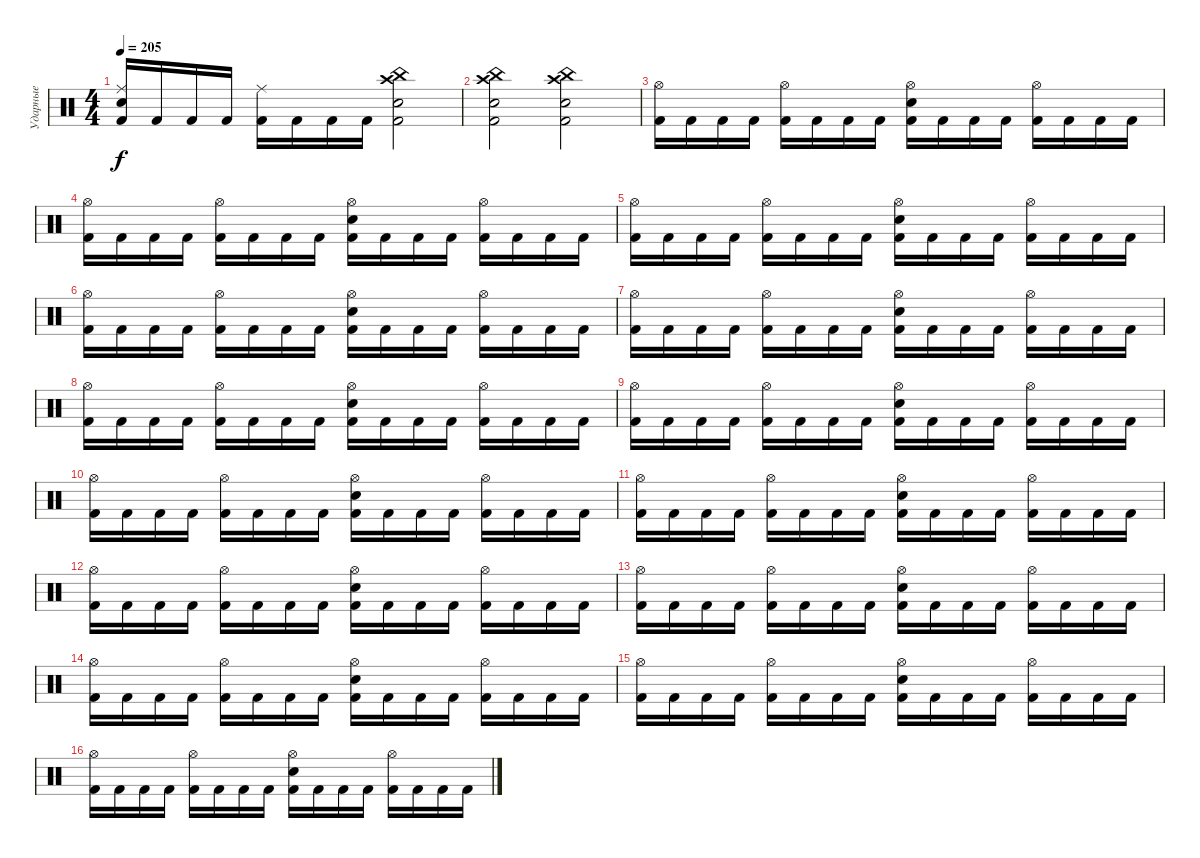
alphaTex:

\track ("Ударные" "Ударные") {instrument percussion}
\staff {score}
\articulation defaults
\ts (4 4)
\tempo 205
\clef neutral
\ks c
("Electric Snare (hit)" "Ride (middle)" "Kick (hit) 2").16{dy f} "Kick (hit) 2".16 "Kick (hit) 2".16 "Kick (hit) 2".16 ("Kick (hit) 2" "Ride (middle)").16 "Kick (hit) 2".16 "Kick (hit) 2".16 "Kick (hit) 2".16 ("Kick (hit) 2" "Electric Snare (hit)" "Crash high (hit)" "China (hit)").2 |
("China (hit)" "Crash high (hit)" "Kick (hit) 2" "Electric Snare (hit)").2 ("Electric Snare (hit)" "Kick (hit) 2" "Crash high (hit)" "China (hit)").2 |
("Hi-Hat (open)" "Kick (hit) 2").16 "Kick (hit) 2".16 "Kick (hit) 2".16 "Kick (hit) 2".16 ("Hi-Hat (open)" "Kick (hit) 2").16 "Kick (hit) 2".16 "Kick (hit) 2".16 "Kick (hit) 2".16 ("Hi-Hat (open)" "Electric Snare (hit)" "Kick (hit) 2").16 "Kick (hit) 2".16 "Kick (hit) 2".16 "Kick (hit) 2".16 ("Hi-Hat (open)" "Kick (hit) 2").16 "Kick (hit) 2".16 "Kick (hit) 2".16 "Kick (hit) 2".16 |
("Hi-Hat (open)" "Kick (hit) 2").16 "Kick (hit) 2".16 "Kick (hit) 2".16 "Kick (hit) 2".16 ("Hi-Hat (open)" "Kick (hit) 2").16 "Kick (hit) 2".16 "Kick (hit) 2".16 "Kick (hit) 2".16 ("Hi-Hat (open)" "Electric Snare (hit)" "Kick (hit) 2").16 "Kick (hit) 2".16 "Kick (hit) 2".16 "Kick (hit) 2".16 ("Hi-Hat (open)" "Kick (hit) 2").16 "Kick (hit) 2".16 "Kick (hit) 2".16 "Kick (hit) 2".16 |
("Hi-Hat (open)" "Kick (hit) 2").16 "Kick (hit) 2".16 "Kick (hit) 2".16 "Kick (hit) 2".16 ("Hi-Hat (open)" "Kick (hit) 2").16 "Kick (hit) 2".16 "Kick (hit) 2".16 "Kick (hit) 2".16 ("Hi-Hat (open)" "Electric Snare (hit)" "Kick (hit) 2").16 "Kick (hit) 2".16 "Kick (hit) 2".16 "Kick (hit) 2".16 ("Hi-Hat (open)" "Kick (hit) 2").16 "Kick (hit) 2".16 "Kick (hit) 2".16 "Kick (hit) 2".16 |
("Hi-Hat (open)" "Kick (hit) 2").16 "Kick (hit) 2".16 "Kick (hit) 2".16 "Kick (hit) 2".16 ("Hi-Hat (open)" "Kick (hit) 2").16 "Kick (hit) 2".16 "Kick (hit) 2".16 "Kick (hit) 2".16 ("Hi-Hat (open)" "Electric Snare (hit)" "Kick (hit) 2").16 "Kick (hit) 2".16 "Kick (hit) 2".16 "Kick (hit) 2".16 ("Hi-Hat (open)" "Kick (hit) 2").16 "Kick (hit) 2".16 "Kick (hit) 2".16 "Kick (hit) 2".16 |
("Hi-Hat (open)" "Kick (hit) 2").16 "Kick (hit) 2".16 "Kick (hit) 2".16 "Kick (hit) 2".16 ("Hi-Hat (open)" "Kick (hit) 2").16 "Kick (hit) 2".16 "Kick (hit) 2".16 "Kick (hit) 2".16 ("Hi-Hat (open)" "Electric Snare (hit)" "Kick (hit) 2").16 "Kick (hit) 2".16 "Kick (hit) 2".16 "Kick (hit) 2".16 ("Hi-Hat (open)" "Kick (hit) 2").16 "Kick (hit) 2".16 "Kick (hit) 2".16 "Kick (hit) 2".16 |
("Hi-Hat (open)" "Kick (hit) 2").16 "Kick (hit) 2".16 "Kick (hit) 2".16 "Kick (hit) 2".16 ("Hi-Hat (open)" "Kick (hit) 2").16 "Kick (hit) 2".16 "Kick (hit) 2".16 "Kick (hit) 2".16 ("Hi-Hat (open)" "Electric Snare (hit)" "Kick (hit) 2").16 "Kick (hit) 2".16 "Kick (hit) 2".16 "Kick (hit) 2".16 ("Hi-Hat (open)" "Kick (hit) 2").16 "Kick (hit) 2".16 "Kick (hit) 2".16 "Kick (hit) 2".16 |
("Hi-Hat (open)" "Kick (hit) 2").16 "Kick (hit) 2".16 "Kick (hit) 2".16 "Kick (hit) 2".16 ("Hi-Hat (open)" "Kick (hit) 2").16 "Kick (hit) 2".16 "Kick (hit) 2".16 "Kick (hit) 2".16 ("Hi-Hat (open)" "Electric Snare (hit)" "Kick (hit) 2").16 "Kick (hit) 2".16 "Kick (hit) 2".16 "Kick (hit) 2".16 ("Hi-Hat (open)" "Kick (hit) 2").16 "Kick (hit) 2".16 "Kick (hit) 2".16 "Kick (hit) 2".16 |
("Hi-Hat (open)" "Kick (hit) 2").16 "Kick (hit) 2".16 "Kick (hit) 2".16 "Kick (hit) 2".16 ("Hi-Hat (open)" "Kick (hit) 2").16 "Kick (hit) 2".16 "Kick (hit) 2".16 "Kick (hit) 2".16 ("Hi-Hat (open)" "Electric Snare (hit)" "Kick (hit) 2").16 "Kick (hit) 2".16 "Kick (hit) 2".16 "Kick (hit) 2".16 ("Hi-Hat (open)" "Kick (hit) 2").16 "Kick (hit) 2".16 "Kick (hit) 2".16 "Kick (hit) 2".16 |
("Hi-Hat (open)" "Kick (hit) 2").16 "Kick (hit) 2".16 "Kick (hit) 2".16 "Kick (hit) 2".16 ("Hi-Hat (open)" "Kick (hit) 2").16 "Kick (hit) 2".16 "Kick (hit) 2".16 "Kick (hit) 2".16 ("Hi-Hat (open)" "Electric Snare (hit)" "Kick (hit) 2").16 "Kick (hit) 2".16 "Kick (hit) 2".16 "Kick (hit) 2".16 ("Hi-Hat (open)" "Kick (hit) 2").16 "Kick (hit) 2".16 "Kick (hit) 2".16 "Kick (hit) 2".16 |
("Hi-Hat (open)" "Kick (hit) 2").16 "Kick (hit) 2".16 "Kick (hit) 2".16 "Kick (hit) 2".16 ("Hi-Hat (open)" "Kick (hit) 2").16 "Kick (hit) 2".16 "Kick (hit) 2".16 "Kick (hit) 2".16 ("Hi-Hat (open)" "Electric Snare (hit)" "Kick (hit) 2").16 "Kick (hit) 2".16 "Kick (hit) 2".16 "Kick (hit) 2".16 ("Hi-Hat (open)" "Kick (hit) 2").16 "Kick (hit) 2".16 "Kick (hit) 2".16 "Kick (hit) 2".16 |
("Hi-Hat (open)" "Kick (hit) 2").16 "Kick (hit) 2".16 "Kick (hit) 2".16 "Kick (hit) 2".16 ("Hi-Hat (open)" "Kick (hit) 2").16 "Kick (hit) 2".16 "Kick (hit) 2".16 "Kick (hit) 2".16 ("Hi-Hat (open)" "Electric Snare (hit)" "Kick (hit) 2").16 "Kick (hit) 2".16 "Kick (hit) 2".16 "Kick (hit) 2".16 ("Hi-Hat (open)" "Kick (hit) 2").16 "Kick (hit) 2".16 "Kick (hit) 2".16 "Kick (hit) 2".16 |
("Hi-Hat (open)" "Kick (hit) 2").16 "Kick (hit) 2".16 "Kick (hit) 2".16 "Kick (hit) 2".16 ("Hi-Hat (open)" "Kick (hit) 2").16 "Kick (hit) 2".16 "Kick (hit) 2".16 "Kick (hit) 2".16 ("Hi-Hat (open)" "Electric Snare (hit)" "Kick (hit) 2").16 "Kick (hit) 2".16 "Kick (hit) 2".16 "Kick (hit) 2".16 ("Hi-Hat (open)" "Kick (hit) 2").16 "Kick (hit) 2".16 "Kick (hit) 2".16 "Kick (hit) 2".16 |
("Hi-Hat (open)" "Kick (hit) 2").16 "Kick (hit) 2".16 "Kick (hit) 2".16 "Kick (hit) 2".16 ("Hi-Hat (open)" "Kick (hit) 2").16 "Kick (hit) 2".16 "Kick (hit) 2".16 "Kick (hit) 2".16 ("Hi-Hat (open)" "Electric Snare (hit)" "Kick (hit) 2").16 "Kick (hit) 2".16 "Kick (hit) 2".16 "Kick (hit) 2".16 ("Hi-Hat (open)" "Kick (hit) 2").16 "Kick (hit) 2".16 "Kick (hit) 2".16 "Kick (hit) 2".16 |
("Hi-Hat (open)" "Kick (hit) 2").16 "Kick (hit) 2".16 "Kick (hit) 2".16 "Kick (hit) 2".16 ("Hi-Hat (open)" "Kick (hit) 2").16 "Kick (hit) 2".16 "Kick (hit) 2".16 "Kick (hit) 2".16 ("Hi-Hat (open)" "Electric Snare (hit)" "Kick (hit) 2").16 "Kick (hit) 2".16 "Kick (hit) 2".16 "Kick (hit) 2".16 ("Hi-Hat (open)" "Kick (hit) 2").16 "Kick (hit) 2".16 "Kick (hit) 2".16 "Kick (hit) 2".16
